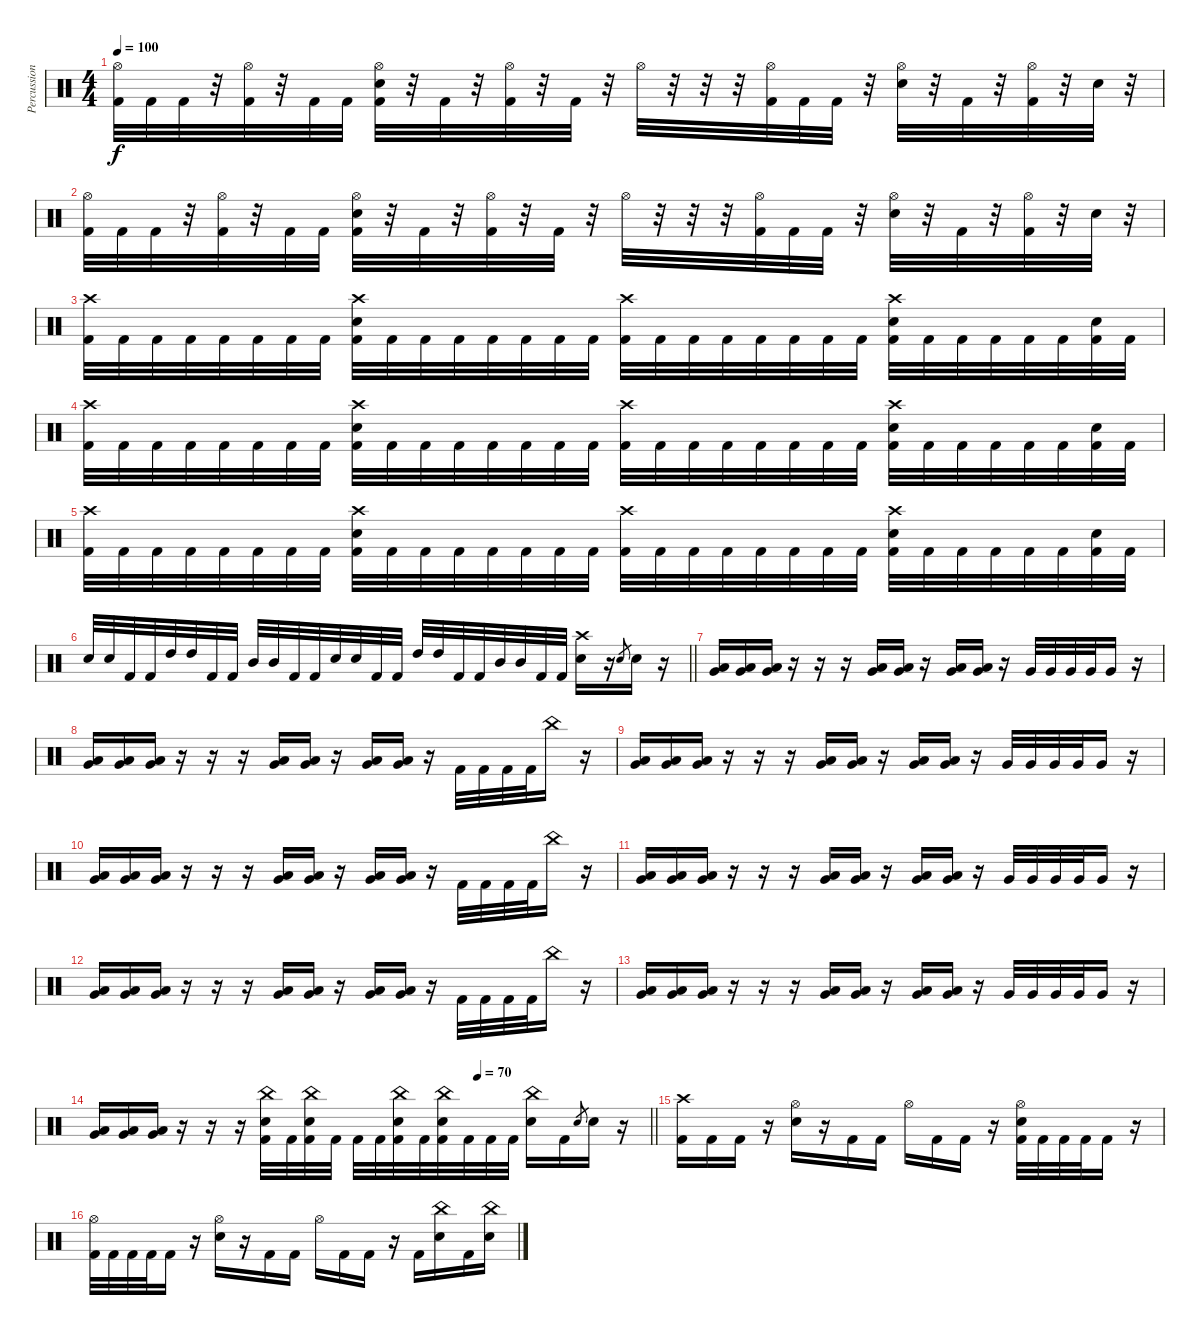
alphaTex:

\track ("Percussion" "Percussion") {instrument percussion}
\staff {score}
\articulation defaults
\ts (4 4)
\tempo 100
\clef neutral
\ks c
("Hi-Hat (open)" "Kick (hit) 2").32{dy f} "Kick (hit) 2".32 "Kick (hit) 2".32 r.32 ("Hi-Hat (open)" "Kick (hit) 2").32 r.32 "Kick (hit) 2".32 "Kick (hit) 2".32 ("Hi-Hat (open)" "Snare (hit) 2" "Kick (hit) 2").32 r.32 "Kick (hit) 2".32 r.32 ("Hi-Hat (open)" "Kick (hit) 2").32 r.32 "Kick (hit) 2".32 r.32 "Hi-Hat (open)".32 r.32 r.32 r.32 ("Hi-Hat (open)" "Kick (hit) 2").32 "Kick (hit) 2".32 "Kick (hit) 2".32 r.32 ("Hi-Hat (open)" "Snare (hit) 2").32 r.32 "Kick (hit) 2".32 r.32 ("Hi-Hat (open)" "Kick (hit) 2").32 r.32 "Snare (hit) 2".32 r.32 |
("Hi-Hat (open)" "Kick (hit) 2").32 "Kick (hit) 2".32 "Kick (hit) 2".32 r.32 ("Hi-Hat (open)" "Kick (hit) 2").32 r.32 "Kick (hit) 2".32 "Kick (hit) 2".32 ("Hi-Hat (open)" "Snare (hit) 2" "Kick (hit) 2").32 r.32 "Kick (hit) 2".32 r.32 ("Hi-Hat (open)" "Kick (hit) 2").32 r.32 "Kick (hit) 2".32 r.32 "Hi-Hat (open)".32 r.32 r.32 r.32 ("Hi-Hat (open)" "Kick (hit) 2").32 "Kick (hit) 2".32 "Kick (hit) 2".32 r.32 ("Hi-Hat (open)" "Snare (hit) 2").32 r.32 "Kick (hit) 2".32 r.32 ("Hi-Hat (open)" "Kick (hit) 2").32 r.32 "Snare (hit) 2".32 r.32 |
("Crash high (hit)" "Kick (hit) 2").32 "Kick (hit) 2".32 "Kick (hit) 2".32 "Kick (hit) 2".32 "Kick (hit) 2".32 "Kick (hit) 2".32 "Kick (hit) 2".32 "Kick (hit) 2".32 ("Crash high (hit)" "Snare (hit) 2" "Kick (hit) 2").32 "Kick (hit) 2".32 "Kick (hit) 2".32 "Kick (hit) 2".32 "Kick (hit) 2".32 "Kick (hit) 2".32 "Kick (hit) 2".32 "Kick (hit) 2".32 ("Crash high (hit)" "Kick (hit) 2").32 "Kick (hit) 2".32 "Kick (hit) 2".32 "Kick (hit) 2".32 "Kick (hit) 2".32 "Kick (hit) 2".32 "Kick (hit) 2".32 "Kick (hit) 2".32 ("Crash high (hit)" "Snare (hit) 2" "Kick (hit) 2").32 "Kick (hit) 2".32 "Kick (hit) 2".32 "Kick (hit) 2".32 "Kick (hit) 2".32 "Kick (hit) 2".32 ("Snare (hit) 2" "Kick (hit) 2").32 "Kick (hit) 2".32 |
("Crash high (hit)" "Kick (hit) 2").32 "Kick (hit) 2".32 "Kick (hit) 2".32 "Kick (hit) 2".32 "Kick (hit) 2".32 "Kick (hit) 2".32 "Kick (hit) 2".32 "Kick (hit) 2".32 ("Crash high (hit)" "Snare (hit) 2" "Kick (hit) 2").32 "Kick (hit) 2".32 "Kick (hit) 2".32 "Kick (hit) 2".32 "Kick (hit) 2".32 "Kick (hit) 2".32 "Kick (hit) 2".32 "Kick (hit) 2".32 ("Crash high (hit)" "Kick (hit) 2").32 "Kick (hit) 2".32 "Kick (hit) 2".32 "Kick (hit) 2".32 "Kick (hit) 2".32 "Kick (hit) 2".32 "Kick (hit) 2".32 "Kick (hit) 2".32 ("Crash high (hit)" "Snare (hit) 2" "Kick (hit) 2").32 "Kick (hit) 2".32 "Kick (hit) 2".32 "Kick (hit) 2".32 "Kick (hit) 2".32 "Kick (hit) 2".32 ("Snare (hit) 2" "Kick (hit) 2").32 "Kick (hit) 2".32 |
("Crash high (hit)" "Kick (hit) 2").32 "Kick (hit) 2".32 "Kick (hit) 2".32 "Kick (hit) 2".32 "Kick (hit) 2".32 "Kick (hit) 2".32 "Kick (hit) 2".32 "Kick (hit) 2".32 ("Crash high (hit)" "Snare (hit) 2" "Kick (hit) 2").32 "Kick (hit) 2".32 "Kick (hit) 2".32 "Kick (hit) 2".32 "Kick (hit) 2".32 "Kick (hit) 2".32 "Kick (hit) 2".32 "Kick (hit) 2".32 ("Crash high (hit)" "Kick (hit) 2").32 "Kick (hit) 2".32 "Kick (hit) 2".32 "Kick (hit) 2".32 "Kick (hit) 2".32 "Kick (hit) 2".32 "Kick (hit) 2".32 "Kick (hit) 2".32 ("Crash high (hit)" "Snare (hit) 2" "Kick (hit) 2").32 "Kick (hit) 2".32 "Kick (hit) 2".32 "Kick (hit) 2".32 "Kick (hit) 2".32 "Kick (hit) 2".32 ("Snare (hit) 2" "Kick (hit) 2").32 "Kick (hit) 2".32 |
\barLineRight lightlight "Snare (hit) 2".32 "Snare (hit) 2".32 "Kick (hit) 2".32 "Kick (hit) 2".32 "High Tom (hit)".32 "High Tom (hit)".32 "Kick (hit) 2".32 "Kick (hit) 2".32 "Mid Tom (hit)".32 "Mid Tom (hit)".32 "Kick (hit) 2".32 "Kick (hit) 2".32 "Snare (hit) 2".32 "Snare (hit) 2".32 "Kick (hit) 2".32 "Kick (hit) 2".32 "High Tom (hit)".32 "High Tom (hit)".32 "Kick (hit) 2".32 "Kick (hit) 2".32 "Mid Tom (hit)".32 "Mid Tom (hit)".32 "Kick (hit) 2".32 "Kick (hit) 2".32
("Crash high (hit)" "Snare (hit) 2").16 r.16 "Snare (hit) 2".8{gr} "Snare (hit) 2".16 r.16 |
\section ("" "")
("Low Tom (hit)" "Very Low Tom (hit)").16 ("Low Tom (hit)" "Very Low Tom (hit)").16 ("Low Tom (hit)" "Very Low Tom (hit)").16 r.16 r.16 r.16 ("Low Tom (hit)" "Very Low Tom (hit)").16 ("Low Tom (hit)" "Very Low Tom (hit)").16 r.16 ("Low Tom (hit)" "Very Low Tom (hit)").16 ("Low Tom (hit)" "Very Low Tom (hit)").16 r.16 "Very Low Tom (hit)".32 "Very Low Tom (hit)".32 "Very Low Tom (hit)".32 "Very Low Tom (hit)".32 "Very Low Tom (hit)".16 r.16 |
("Low Tom (hit)" "Very Low Tom (hit)").16 ("Low Tom (hit)" "Very Low Tom (hit)").16 ("Low Tom (hit)" "Very Low Tom (hit)").16 r.16 r.16 r.16 ("Low Tom (hit)" "Very Low Tom (hit)").16 ("Low Tom (hit)" "Very Low Tom (hit)").16 r.16 ("Low Tom (hit)" "Very Low Tom (hit)").16 ("Low Tom (hit)" "Very Low Tom (hit)").16 r.16 "Kick (hit) 2".32 "Kick (hit) 2".32 "Kick (hit) 2".32 "Kick (hit) 2".32 "China (hit)".16 r.16 |
("Low Tom (hit)" "Very Low Tom (hit)").16 ("Low Tom (hit)" "Very Low Tom (hit)").16 ("Low Tom (hit)" "Very Low Tom (hit)").16 r.16 r.16 r.16 ("Low Tom (hit)" "Very Low Tom (hit)").16 ("Low Tom (hit)" "Very Low Tom (hit)").16 r.16 ("Low Tom (hit)" "Very Low Tom (hit)").16 ("Low Tom (hit)" "Very Low Tom (hit)").16 r.16 "Very Low Tom (hit)".32 "Very Low Tom (hit)".32 "Very Low Tom (hit)".32 "Very Low Tom (hit)".32 "Very Low Tom (hit)".16 r.16 |
("Low Tom (hit)" "Very Low Tom (hit)").16 ("Low Tom (hit)" "Very Low Tom (hit)").16 ("Low Tom (hit)" "Very Low Tom (hit)").16 r.16 r.16 r.16 ("Low Tom (hit)" "Very Low Tom (hit)").16 ("Low Tom (hit)" "Very Low Tom (hit)").16 r.16 ("Low Tom (hit)" "Very Low Tom (hit)").16 ("Low Tom (hit)" "Very Low Tom (hit)").16 r.16 "Kick (hit) 2".32 "Kick (hit) 2".32 "Kick (hit) 2".32 "Kick (hit) 2".32 "China (hit)".16 r.16 |
("Low Tom (hit)" "Very Low Tom (hit)").16 ("Low Tom (hit)" "Very Low Tom (hit)").16 ("Low Tom (hit)" "Very Low Tom (hit)").16 r.16 r.16 r.16 ("Low Tom (hit)" "Very Low Tom (hit)").16 ("Low Tom (hit)" "Very Low Tom (hit)").16 r.16 ("Low Tom (hit)" "Very Low Tom (hit)").16 ("Low Tom (hit)" "Very Low Tom (hit)").16 r.16 "Very Low Tom (hit)".32 "Very Low Tom (hit)".32 "Very Low Tom (hit)".32 "Very Low Tom (hit)".32 "Very Low Tom (hit)".16 r.16 |
("Low Tom (hit)" "Very Low Tom (hit)").16 ("Low Tom (hit)" "Very Low Tom (hit)").16 ("Low Tom (hit)" "Very Low Tom (hit)").16 r.16 r.16 r.16 ("Low Tom (hit)" "Very Low Tom (hit)").16 ("Low Tom (hit)" "Very Low Tom (hit)").16 r.16 ("Low Tom (hit)" "Very Low Tom (hit)").16 ("Low Tom (hit)" "Very Low Tom (hit)").16 r.16 "Kick (hit) 2".32 "Kick (hit) 2".32 "Kick (hit) 2".32 "Kick (hit) 2".32 "China (hit)".16 r.16 |
("Low Tom (hit)" "Very Low Tom (hit)").16 ("Low Tom (hit)" "Very Low Tom (hit)").16 ("Low Tom (hit)" "Very Low Tom (hit)").16 r.16 r.16 r.16 ("Low Tom (hit)" "Very Low Tom (hit)").16 ("Low Tom (hit)" "Very Low Tom (hit)").16 r.16 ("Low Tom (hit)" "Very Low Tom (hit)").16 ("Low Tom (hit)" "Very Low Tom (hit)").16 r.16 "Very Low Tom (hit)".32 "Very Low Tom (hit)".32 "Very Low Tom (hit)".32 "Very Low Tom (hit)".32 "Very Low Tom (hit)".16 r.16 |
\tempo (70 0.6875)
\barLineRight lightlight
("Low Tom (hit)" "Very Low Tom (hit)").16 ("Low Tom (hit)" "Very Low Tom (hit)").16 ("Low Tom (hit)" "Very Low Tom (hit)").16 r.16 r.16 r.16 ("China (hit)" "Snare (hit) 2" "Kick (hit) 2").32 "Kick (hit) 2".32 ("China (hit)" "Snare (hit) 2" "Kick (hit) 2").32 "Kick (hit) 2".32 "Kick (hit) 2".32 "Kick (hit) 2".32 ("China (hit)" "Snare (hit) 2" "Kick (hit) 2").32 "Kick (hit) 2".32 ("China (hit)" "Snare (hit) 2" "Kick (hit) 2").32 "Kick (hit) 2".32 "Kick (hit) 2".32 "Kick (hit) 2".32 ("China (hit)" "Snare (hit) 2").16 "Kick (hit) 2".16 "Snare (hit) 2".8{gr} "Snare (hit) 2".16 r.16 |
\section ("" "")
("Crash high (hit)" "Kick (hit) 2").16 "Kick (hit) 2".16 "Kick (hit) 2".16 r.16 ("Hi-Hat (open)" "Snare (hit) 2").16 r.16 "Kick (hit) 2".16 "Kick (hit) 2".16 "Hi-Hat (open)".16 "Kick (hit) 2".16 "Kick (hit) 2".16 r.16 ("Hi-Hat (open)" "Snare (hit) 2" "Kick (hit) 2").32 "Kick (hit) 2".32 "Kick (hit) 2".32 "Kick (hit) 2".32 "Kick (hit) 2".16 r.16 |
("Hi-Hat (open)" "Kick (hit) 2").32 "Kick (hit) 2".32 "Kick (hit) 2".32 "Kick (hit) 2".32 "Kick (hit) 2".16 r.16 ("Hi-Hat (open)" "Snare (hit) 2").16 r.16 "Kick (hit) 2".16 "Kick (hit) 2".16 "Hi-Hat (open)".16 "Kick (hit) 2".16 "Kick (hit) 2".16 r.16 "Kick (hit) 2".16 ("China (hit)" "Snare (hit) 2").16 "Kick (hit) 2".16 ("China (hit)" "Snare (hit) 2").16
